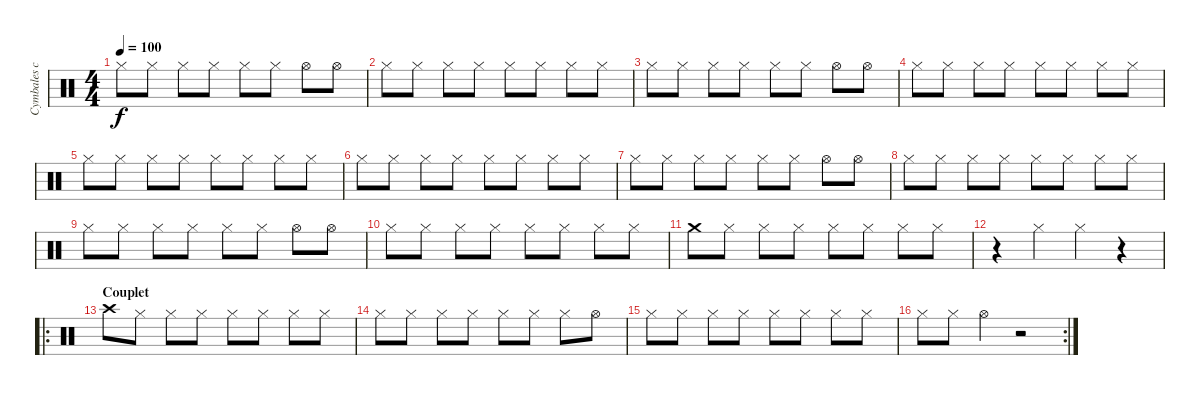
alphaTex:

\track ("Cymbales charlestone" "Cymbales c") {instrument percussion}
\staff {score}
\articulation defaults
\ts (4 4)
\tempo 100
\clef neutral
\ks c "Hi-Hat (closed)".8{dy f} "Hi-Hat (closed)".8 "Hi-Hat (closed)".8 "Hi-Hat (closed)".8 "Hi-Hat (closed)".8 "Hi-Hat (closed)".8 "Hi-Hat (open)".8 "Hi-Hat (open)".8
|
"Hi-Hat (closed)".8 "Hi-Hat (closed)".8 "Hi-Hat (closed)".8 "Hi-Hat (closed)".8 "Hi-Hat (closed)".8 "Hi-Hat (closed)".8 "Hi-Hat (closed)".8 "Hi-Hat (closed)".8 |
"Hi-Hat (closed)".8 "Hi-Hat (closed)".8 "Hi-Hat (closed)".8 "Hi-Hat (closed)".8 "Hi-Hat (closed)".8 "Hi-Hat (closed)".8 "Hi-Hat (open)".8 "Hi-Hat (open)".8 |
"Hi-Hat (closed)".8 "Hi-Hat (closed)".8 "Hi-Hat (closed)".8 "Hi-Hat (closed)".8 "Hi-Hat (closed)".8 "Hi-Hat (closed)".8 "Hi-Hat (closed)".8 "Hi-Hat (closed)".8 |
"Hi-Hat (closed)".8 "Hi-Hat (closed)".8 "Hi-Hat (closed)".8 "Hi-Hat (closed)".8 "Hi-Hat (closed)".8 "Hi-Hat (closed)".8 "Hi-Hat (closed)".8 "Hi-Hat (closed)".8 |
"Hi-Hat (closed)".8 "Hi-Hat (closed)".8 "Hi-Hat (closed)".8 "Hi-Hat (closed)".8 "Hi-Hat (closed)".8 "Hi-Hat (closed)".8 "Hi-Hat (closed)".8 "Hi-Hat (closed)".8 |
"Hi-Hat (closed)".8 "Hi-Hat (closed)".8 "Hi-Hat (closed)".8 "Hi-Hat (closed)".8 "Hi-Hat (closed)".8 "Hi-Hat (closed)".8 "Hi-Hat (open)".8 "Hi-Hat (open)".8 |
"Hi-Hat (closed)".8 "Hi-Hat (closed)".8 "Hi-Hat (closed)".8 "Hi-Hat (closed)".8 "Hi-Hat (closed)".8 "Hi-Hat (closed)".8 "Hi-Hat (closed)".8 "Hi-Hat (closed)".8 |
"Hi-Hat (closed)".8 "Hi-Hat (closed)".8 "Hi-Hat (closed)".8 "Hi-Hat (closed)".8 "Hi-Hat (closed)".8 "Hi-Hat (closed)".8 "Hi-Hat (open)".8 "Hi-Hat (open)".8 |
"Hi-Hat (closed)".8 "Hi-Hat (closed)".8 "Hi-Hat (closed)".8 "Hi-Hat (closed)".8 "Hi-Hat (closed)".8 "Hi-Hat (closed)".8 "Hi-Hat (closed)".8 "Hi-Hat (closed)".8 |
"Crash medium (hit)".8 "Hi-Hat (closed)".8 "Hi-Hat (closed)".8 "Hi-Hat (closed)".8 "Hi-Hat (closed)".8 "Hi-Hat (closed)".8 "Hi-Hat (closed)".8 "Hi-Hat (closed)".8 |
r.4 "Hi-Hat (closed)".4 "Hi-Hat (closed)".4 r.4 |
\ro
\section ("" "Couplet")
"Crash high (hit)".8 "Hi-Hat (closed)".8 "Hi-Hat (closed)".8 "Hi-Hat (closed)".8 "Hi-Hat (closed)".8 "Hi-Hat (closed)".8 "Hi-Hat (closed)".8 "Hi-Hat (closed)".8 |
"Hi-Hat (closed)".8 "Hi-Hat (closed)".8 "Hi-Hat (closed)".8 "Hi-Hat (closed)".8 "Hi-Hat (closed)".8 "Hi-Hat (closed)".8 "Hi-Hat (closed)".8 "Hi-Hat (open)".8 |
"Hi-Hat (closed)".8 "Hi-Hat (closed)".8 "Hi-Hat (closed)".8 "Hi-Hat (closed)".8 "Hi-Hat (closed)".8 "Hi-Hat (closed)".8 "Hi-Hat (closed)".8 "Hi-Hat (closed)".8 |
\rc 2 "Hi-Hat (closed)".8 "Hi-Hat (closed)".8 "Hi-Hat (open)".4
r.2
